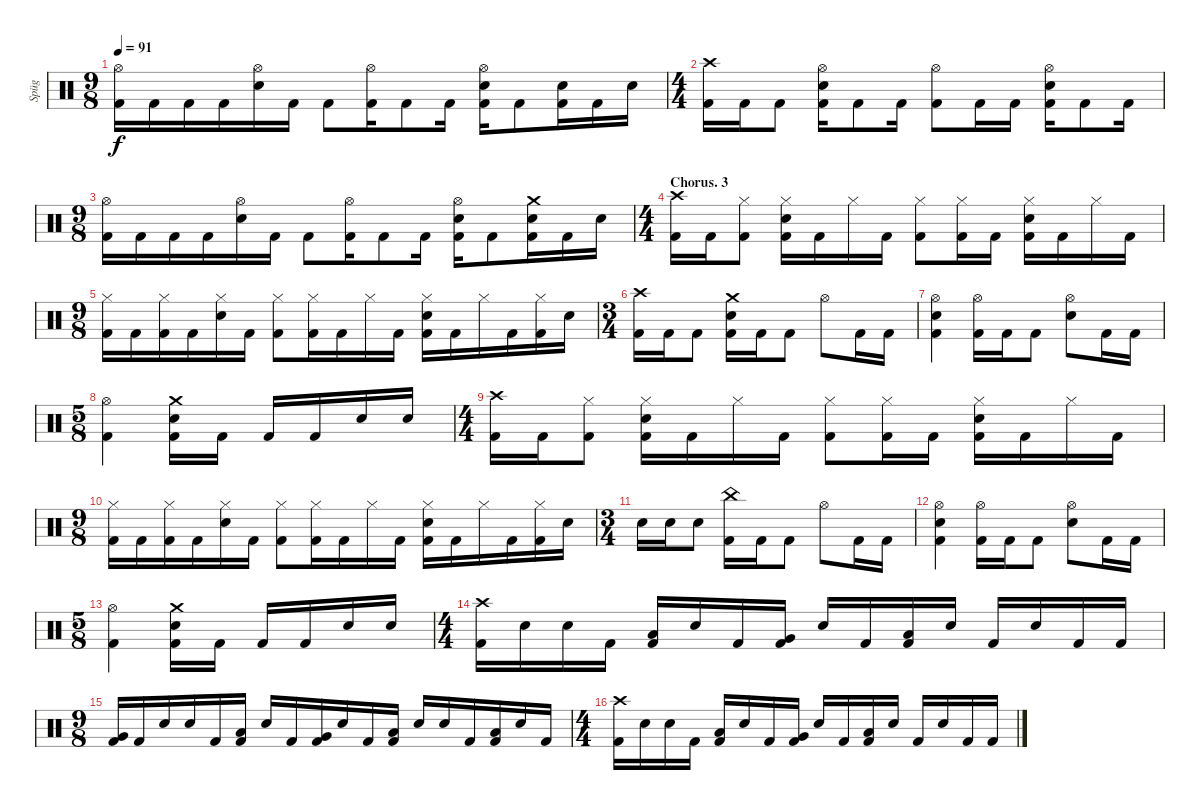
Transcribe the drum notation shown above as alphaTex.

\track ("Spüg" "Spüg") {instrument percussion}
\staff {score}
\articulation defaults
\ts (9 8)
\tempo 91
\clef neutral
\ks c
("Hi-Hat (open)" "Kick (hit) 2").16{dy f} "Kick (hit) 2".16 "Kick (hit) 2".16 "Kick (hit) 2".16 ("Hi-Hat (open)" "Electric Snare (hit)").16 "Kick (hit) 2".16 "Kick (hit) 2".8 ("Hi-Hat (open)" "Kick (hit) 2").16 "Kick (hit) 2".8 "Kick (hit) 2".16 ("Hi-Hat (open)" "Electric Snare (hit)" "Kick (hit) 2").16 "Kick (hit) 2".8 ("Electric Snare (hit)" "Kick (hit) 2").16 "Kick (hit) 2".16 "Electric Snare (hit)".16 |
\ts (4 4)
("Crash high (hit)" "Kick (hit) 2").16 "Kick (hit) 2".16 "Kick (hit) 2".8 ("Hi-Hat (open)" "Electric Snare (hit)" "Kick (hit) 2").16 "Kick (hit) 2".8 "Kick (hit) 2".16 ("Hi-Hat (open)" "Kick (hit) 2").8 "Kick (hit) 2".16 "Kick (hit) 2".16 ("Hi-Hat (open)" "Electric Snare (hit)" "Kick (hit) 2").16 "Kick (hit) 2".8 "Kick (hit) 2".16 |
\ts (9 8)
("Hi-Hat (open)" "Kick (hit) 2").16 "Kick (hit) 2".16 "Kick (hit) 2".16 "Kick (hit) 2".16 ("Hi-Hat (open)" "Electric Snare (hit)").16 "Kick (hit) 2".16 "Kick (hit) 2".8 ("Hi-Hat (open)" "Kick (hit) 2").16 "Kick (hit) 2".8 "Kick (hit) 2".16 ("Hi-Hat (open)" "Electric Snare (hit)" "Kick (hit) 2").16 "Kick (hit) 2".8 ("Crash medium (hit)" "Electric Snare (hit)" "Kick (hit) 2").16 "Kick (hit) 2".16 "Electric Snare (hit)".16 |
\ts (4 4)
\section ("" "Chorus. 3")
("Crash high (hit)" "Kick (hit) 2").16 "Kick (hit) 2".16 ("Hi-Hat (closed)" "Kick (hit) 2").8 ("Hi-Hat (closed)" "Electric Snare (hit)" "Kick (hit) 2").16 "Kick (hit) 2".16 "Hi-Hat (closed)".16 "Kick (hit) 2".16 ("Hi-Hat (closed)" "Kick (hit) 2").8 ("Hi-Hat (closed)" "Kick (hit) 2").16 "Kick (hit) 2".16 ("Hi-Hat (closed)" "Electric Snare (hit)" "Kick (hit) 2").16 "Kick (hit) 2".16 "Hi-Hat (closed)".16 "Kick (hit) 2".16 |
\ts (9 8)
("Hi-Hat (closed)" "Kick (hit) 2").16 "Kick (hit) 2".16 ("Hi-Hat (closed)" "Kick (hit) 2").16 "Kick (hit) 2".16 ("Hi-Hat (closed)" "Electric Snare (hit)").16 "Kick (hit) 2".16 ("Hi-Hat (closed)" "Kick (hit) 2").8 ("Hi-Hat (closed)" "Kick (hit) 2").16 "Kick (hit) 2".16 "Hi-Hat (closed)".16 "Kick (hit) 2".16 ("Hi-Hat (closed)" "Electric Snare (hit)" "Kick (hit) 2").16 "Kick (hit) 2".16 "Hi-Hat (closed)".16 "Kick (hit) 2".16 ("Hi-Hat (closed)" "Kick (hit) 2").16 "Electric Snare (hit)".16 |
\ts (3 4)
("Crash high (hit)" "Kick (hit) 2").16 "Kick (hit) 2".16 "Kick (hit) 2".8 ("Crash medium (hit)" "Electric Snare (hit)" "Kick (hit) 2").16 "Kick (hit) 2".16 "Kick (hit) 2".8 "Hi-Hat (open)".8 "Kick (hit) 2".16 "Kick (hit) 2".16 |
("Hi-Hat (open)" "Electric Snare (hit)" "Kick (hit) 2").4 ("Hi-Hat (open)" "Kick (hit) 2").16 "Kick (hit) 2".16 "Kick (hit) 2".8 ("Hi-Hat (open)" "Electric Snare (hit)").8 "Kick (hit) 2".16 "Kick (hit) 2".16 |
\ts (5 8)
("Hi-Hat (open)" "Kick (hit) 2").4 ("Crash medium (hit)" "Electric Snare (hit)" "Kick (hit) 2").16 "Kick (hit) 2".16 "Kick (hit) 2".16 "Kick (hit) 2".16 "Electric Snare (hit)".16 "Electric Snare (hit)".16 |
\ts (4 4)
("Crash high (hit)" "Kick (hit) 2").16 "Kick (hit) 2".16 ("Hi-Hat (closed)" "Kick (hit) 2").8 ("Hi-Hat (closed)" "Electric Snare (hit)" "Kick (hit) 2").16 "Kick (hit) 2".16 "Hi-Hat (closed)".16 "Kick (hit) 2".16 ("Hi-Hat (closed)" "Kick (hit) 2").8 ("Hi-Hat (closed)" "Kick (hit) 2").16 "Kick (hit) 2".16 ("Hi-Hat (closed)" "Electric Snare (hit)" "Kick (hit) 2").16 "Kick (hit) 2".16 "Hi-Hat (closed)".16 "Kick (hit) 2".16 |
\ts (9 8)
("Hi-Hat (closed)" "Kick (hit) 2").16 "Kick (hit) 2".16 ("Hi-Hat (closed)" "Kick (hit) 2").16 "Kick (hit) 2".16 ("Hi-Hat (closed)" "Electric Snare (hit)").16 "Kick (hit) 2".16 ("Hi-Hat (closed)" "Kick (hit) 2").8 ("Hi-Hat (closed)" "Kick (hit) 2").16 "Kick (hit) 2".16 "Hi-Hat (closed)".16 "Kick (hit) 2".16 ("Hi-Hat (closed)" "Electric Snare (hit)" "Kick (hit) 2").16 "Kick (hit) 2".16 "Hi-Hat (closed)".16 "Kick (hit) 2".16 ("Hi-Hat (closed)" "Kick (hit) 2").16 "Electric Snare (hit)".16 |
\ts (3 4)
"Electric Snare (hit)".16 "Electric Snare (hit)".16 "Electric Snare (hit)".8 ("China (hit)" "Kick (hit) 2").16 "Kick (hit) 2".16 "Kick (hit) 2".8 "Hi-Hat (open)".8 "Kick (hit) 2".16 "Kick (hit) 2".16 |
("Hi-Hat (open)" "Electric Snare (hit)" "Kick (hit) 2").4 ("Hi-Hat (open)" "Kick (hit) 2").16 "Kick (hit) 2".16 "Kick (hit) 2".8 ("Hi-Hat (open)" "Electric Snare (hit)").8 "Kick (hit) 2".16 "Kick (hit) 2".16 |
\ts (5 8)
("Hi-Hat (open)" "Kick (hit) 2").4 ("Crash medium (hit)" "Electric Snare (hit)" "Kick (hit) 2").16 "Kick (hit) 2".16 "Kick (hit) 2".16 "Kick (hit) 2".16 "Electric Snare (hit)".16 "Electric Snare (hit)".16 |
\ts (4 4)
("Crash high (hit)" "Kick (hit) 2").16 "Electric Snare (hit)".16 "Electric Snare (hit)".16 "Kick (hit) 2".16 ("Low Tom (hit)" "Kick (hit) 2").16 "Electric Snare (hit)".16 "Kick (hit) 2".16 ("Very Low Tom (hit)" "Kick (hit) 2").16 "Electric Snare (hit)".16 "Kick (hit) 2".16 ("Low Tom (hit)" "Kick (hit) 2").16 "Electric Snare (hit)".16 "Kick (hit) 2".16 "Electric Snare (hit)".16 "Kick (hit) 2".16 "Kick (hit) 2".16 |
\ts (9 8)
("Very Low Tom (hit)" "Kick (hit) 2").16 "Kick (hit) 2".16 "Electric Snare (hit)".16 "Electric Snare (hit)".16 "Kick (hit) 2".16 ("Low Floor Tom (hit)" "Kick (hit) 2").16 "Electric Snare (hit)".16 "Kick (hit) 2".16 ("Very Low Tom (hit)" "Kick (hit) 2").16 "Electric Snare (hit)".16 "Kick (hit) 2".16 ("Low Tom (hit)" "Kick (hit) 2").16 "Electric Snare (hit)".16 "Electric Snare (hit)".16 "Kick (hit) 2".16 ("Low Floor Tom (hit)" "Kick (hit) 2").16 "Electric Snare (hit)".16 "Kick (hit) 2".16 |
\ts (4 4)
("Crash high (hit)" "Kick (hit) 2").16 "Electric Snare (hit)".16 "Electric Snare (hit)".16 "Kick (hit) 2".16 ("Low Tom (hit)" "Kick (hit) 2").16 "Electric Snare (hit)".16 "Kick (hit) 2".16 ("Very Low Tom (hit)" "Kick (hit) 2").16 "Electric Snare (hit)".16 "Kick (hit) 2".16 ("Low Tom (hit)" "Kick (hit) 2").16 "Electric Snare (hit)".16 "Kick (hit) 2".16 "Electric Snare (hit)".16 "Kick (hit) 2".16 "Kick (hit) 2".16
